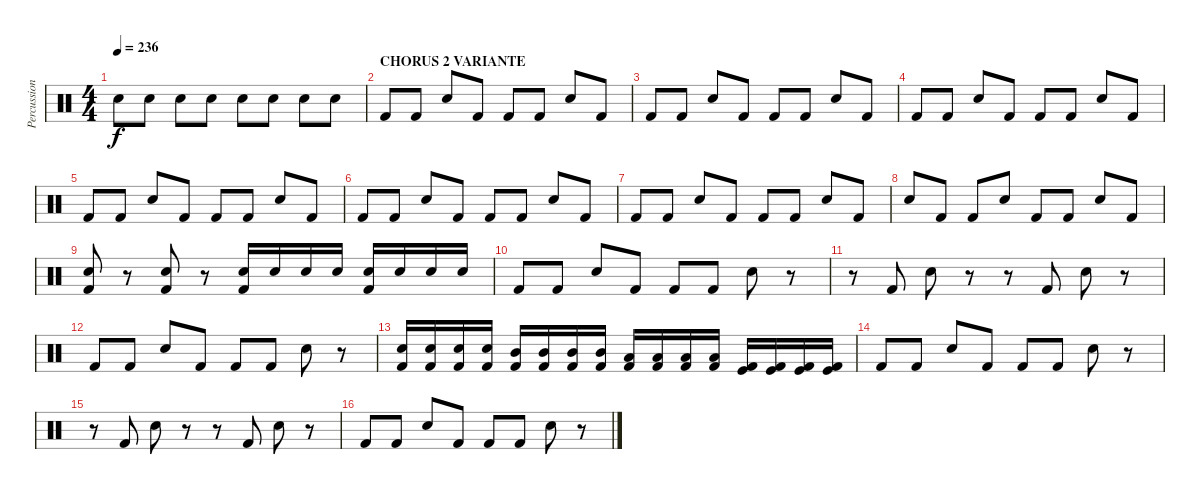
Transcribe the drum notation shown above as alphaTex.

\track ("Percussions" "Percussion") {instrument percussion}
\staff {score}
\articulation defaults
\ts (4 4)
\tempo 236
\clef neutral
\ks c "Snare (hit) 2".8{dy f} "Snare (hit) 2".8 "Snare (hit) 2".8 "Snare (hit) 2".8 "Snare (hit) 2".8 "Snare (hit) 2".8 "Snare (hit) 2".8 "Snare (hit) 2".8
|
\section ("" "CHORUS 2 VARIANTE")
"Kick (hit) 2".8 "Kick (hit) 2".8 "Snare (hit) 2".8 "Kick (hit) 2".8 "Kick (hit) 2".8 "Kick (hit) 2".8 "Snare (hit) 2".8 "Kick (hit) 2".8 |
"Kick (hit) 2".8 "Kick (hit) 2".8 "Snare (hit) 2".8 "Kick (hit) 2".8 "Kick (hit) 2".8 "Kick (hit) 2".8 "Snare (hit) 2".8 "Kick (hit) 2".8 |
"Kick (hit) 2".8 "Kick (hit) 2".8 "Snare (hit) 2".8 "Kick (hit) 2".8 "Kick (hit) 2".8 "Kick (hit) 2".8 "Snare (hit) 2".8 "Kick (hit) 2".8 |
"Kick (hit) 2".8 "Kick (hit) 2".8 "Snare (hit) 2".8 "Kick (hit) 2".8 "Kick (hit) 2".8 "Kick (hit) 2".8 "Snare (hit) 2".8 "Kick (hit) 2".8 |
"Kick (hit) 2".8 "Kick (hit) 2".8 "Snare (hit) 2".8 "Kick (hit) 2".8 "Kick (hit) 2".8 "Kick (hit) 2".8 "Snare (hit) 2".8 "Kick (hit) 2".8 |
"Kick (hit) 2".8 "Kick (hit) 2".8 "Snare (hit) 2".8 "Kick (hit) 2".8 "Kick (hit) 2".8 "Kick (hit) 2".8 "Snare (hit) 2".8 "Kick (hit) 2".8 |
"Snare (hit) 2".8 "Kick (hit) 2".8 "Kick (hit) 2".8 "Snare (hit) 2".8 "Kick (hit) 2".8 "Kick (hit) 2".8 "Snare (hit) 2".8 "Kick (hit) 2".8 |
("Snare (hit) 2" "Kick (hit) 2").8 r.8 ("Snare (hit) 2" "Kick (hit) 2").8 r.8 ("Snare (hit) 2" "Kick (hit) 2").16 "Snare (hit) 2".16 "Snare (hit) 2".16 "Snare (hit) 2".16 ("Snare (hit) 2" "Kick (hit) 2").16 "Snare (hit) 2".16 "Snare (hit) 2".16 "Snare (hit) 2".16 |
"Kick (hit) 2".8 "Kick (hit) 2".8 "Snare (hit) 2".8 "Kick (hit) 2".8 "Kick (hit) 2".8 "Kick (hit) 2".8 "Snare (hit) 2".8 r.8 |
r.8 "Kick (hit) 2".8 "Snare (hit) 2".8 r.8 r.8 "Kick (hit) 2".8 "Snare (hit) 2".8 r.8 |
"Kick (hit) 2".8 "Kick (hit) 2".8 "Snare (hit) 2".8 "Kick (hit) 2".8 "Kick (hit) 2".8 "Kick (hit) 2".8 "Snare (hit) 2".8 r.8 |
("Snare (hit) 2" "Kick (hit) 2").16 ("Snare (hit) 2" "Kick (hit) 2").16 ("Snare (hit) 2" "Kick (hit) 2").16 ("Snare (hit) 2" "Kick (hit) 2").16 ("Mid Tom (hit)" "Kick (hit) 2").16 ("Mid Tom (hit)" "Kick (hit) 2").16 ("Mid Tom (hit)" "Kick (hit) 2").16 ("Mid Tom (hit)" "Kick (hit) 2").16 ("Low Tom (hit)" "Kick (hit) 2").16 ("Low Tom (hit)" "Kick (hit) 2").16 ("Low Tom (hit)" "Kick (hit) 2").16 ("Low Tom (hit)" "Kick (hit) 2").16 ("Kick (hit)" "Kick (hit) 2").16 ("Kick (hit)" "Kick (hit) 2").16 ("Kick (hit)" "Kick (hit) 2").16 ("Kick (hit)" "Kick (hit) 2").16 |
"Kick (hit) 2".8 "Kick (hit) 2".8 "Snare (hit) 2".8 "Kick (hit) 2".8 "Kick (hit) 2".8 "Kick (hit) 2".8 "Snare (hit) 2".8 r.8 |
r.8 "Kick (hit) 2".8 "Snare (hit) 2".8 r.8 r.8 "Kick (hit) 2".8 "Snare (hit) 2".8 r.8 |
"Kick (hit) 2".8 "Kick (hit) 2".8 "Snare (hit) 2".8 "Kick (hit) 2".8 "Kick (hit) 2".8 "Kick (hit) 2".8 "Snare (hit) 2".8 r.8
